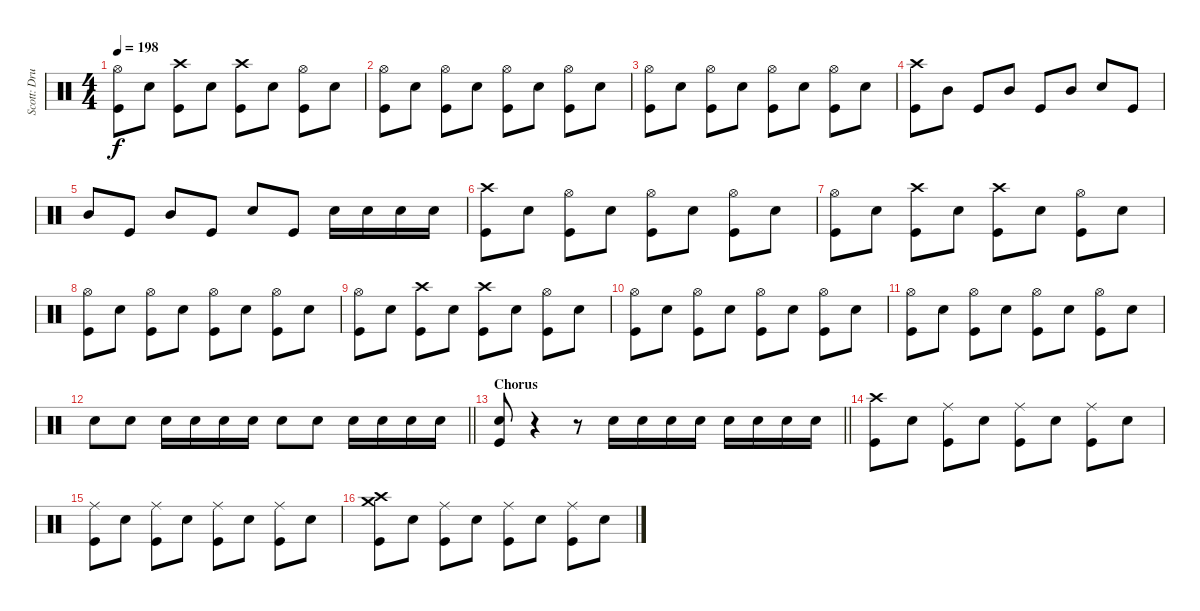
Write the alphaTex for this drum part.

\track ("Scott: Drums" "Scott: Dru") {instrument percussion}
\staff {score}
\articulation defaults
\ts (4 4)
\tempo 198
\clef neutral
\ks c
("Hi-Hat (open)" "Kick (hit)").8{dy f} "Electric Snare (hit)".8 ("Crash high (hit)" "Kick (hit)").8 "Electric Snare (hit)".8 ("Crash high (hit)" "Kick (hit)").8 "Electric Snare (hit)".8 ("Hi-Hat (open)" "Kick (hit)").8 "Electric Snare (hit)".8 |
("Hi-Hat (open)" "Kick (hit)").8 "Electric Snare (hit)".8 ("Hi-Hat (open)" "Kick (hit)").8 "Electric Snare (hit)".8 ("Hi-Hat (open)" "Kick (hit)").8 "Electric Snare (hit)".8 ("Hi-Hat (open)" "Kick (hit)").8 "Electric Snare (hit)".8 |
("Hi-Hat (open)" "Kick (hit)").8 "Electric Snare (hit)".8 ("Hi-Hat (open)" "Kick (hit)").8 "Electric Snare (hit)".8 ("Hi-Hat (open)" "Kick (hit)").8 "Electric Snare (hit)".8 ("Hi-Hat (open)" "Kick (hit)").8 "Electric Snare (hit)".8 |
("Crash high (hit)" "Kick (hit)").8 "Mid Tom (hit)".8 "Kick (hit)".8 "Mid Tom (hit)".8 "Kick (hit)".8 "Mid Tom (hit)".8 "Electric Snare (hit)".8 "Kick (hit)".8 |
"Mid Tom (hit)".8 "Kick (hit)".8 "Mid Tom (hit)".8 "Kick (hit)".8 "Electric Snare (hit)".8 "Kick (hit)".8 "Electric Snare (hit)".16 "Electric Snare (hit)".16 "Electric Snare (hit)".16 "Electric Snare (hit)".16 |
("Crash high (hit)" "Kick (hit)").8 "Electric Snare (hit)".8 ("Hi-Hat (open)" "Kick (hit)").8 "Electric Snare (hit)".8 ("Hi-Hat (open)" "Kick (hit)").8 "Electric Snare (hit)".8 ("Hi-Hat (open)" "Kick (hit)").8 "Electric Snare (hit)".8 |
("Hi-Hat (open)" "Kick (hit)").8 "Electric Snare (hit)".8 ("Crash high (hit)" "Kick (hit)").8 "Electric Snare (hit)".8 ("Crash high (hit)" "Kick (hit)").8 "Electric Snare (hit)".8 ("Hi-Hat (open)" "Kick (hit)").8 "Electric Snare (hit)".8 |
("Hi-Hat (open)" "Kick (hit)").8 "Electric Snare (hit)".8 ("Hi-Hat (open)" "Kick (hit)").8 "Electric Snare (hit)".8 ("Hi-Hat (open)" "Kick (hit)").8 "Electric Snare (hit)".8 ("Hi-Hat (open)" "Kick (hit)").8 "Electric Snare (hit)".8 |
("Hi-Hat (open)" "Kick (hit)").8 "Electric Snare (hit)".8 ("Crash high (hit)" "Kick (hit)").8 "Electric Snare (hit)".8 ("Crash high (hit)" "Kick (hit)").8 "Electric Snare (hit)".8 ("Hi-Hat (open)" "Kick (hit)").8 "Electric Snare (hit)".8 |
("Hi-Hat (open)" "Kick (hit)").8 "Electric Snare (hit)".8 ("Hi-Hat (open)" "Kick (hit)").8 "Electric Snare (hit)".8 ("Hi-Hat (open)" "Kick (hit)").8 "Electric Snare (hit)".8 ("Hi-Hat (open)" "Kick (hit)").8 "Electric Snare (hit)".8 |
("Hi-Hat (open)" "Kick (hit)").8 "Electric Snare (hit)".8 ("Hi-Hat (open)" "Kick (hit)").8 "Electric Snare (hit)".8 ("Hi-Hat (open)" "Kick (hit)").8 "Electric Snare (hit)".8 ("Hi-Hat (open)" "Kick (hit)").8 "Electric Snare (hit)".8 |
\barLineRight lightlight "Electric Snare (hit)".8 "Electric Snare (hit)".8 "Electric Snare (hit)".16 "Electric Snare (hit)".16 "Electric Snare (hit)".16 "Electric Snare (hit)".16 "Electric Snare (hit)".8 "Electric Snare (hit)".8 "Electric Snare (hit)".16 "Electric Snare (hit)".16 "Electric Snare (hit)".16 "Electric Snare (hit)".16
|
\section ("" "Chorus")
\barLineRight lightlight
("Electric Snare (hit)" "Kick (hit)").8 r.4 r.8 "Electric Snare (hit)".16 "Electric Snare (hit)".16 "Electric Snare (hit)".16 "Electric Snare (hit)".16 "Electric Snare (hit)".16 "Electric Snare (hit)".16 "Electric Snare (hit)".16 "Electric Snare (hit)".16 |
("Crash high (hit)" "Kick (hit)").8 "Electric Snare (hit)".8 ("Ride (middle)" "Kick (hit)").8 "Electric Snare (hit)".8 ("Ride (middle)" "Kick (hit)").8 "Electric Snare (hit)".8 ("Ride (middle)" "Kick (hit)").8 "Electric Snare (hit)".8 |
("Ride (middle)" "Kick (hit)").8 "Electric Snare (hit)".8 ("Ride (middle)" "Kick (hit)").8 "Electric Snare (hit)".8 ("Ride (middle)" "Kick (hit)").8 "Electric Snare (hit)".8 ("Ride (middle)" "Kick (hit)").8 "Electric Snare (hit)".8 |
("Crash high (hit)" "Crash medium (hit)" "Kick (hit)").8 "Electric Snare (hit)".8 ("Ride (middle)" "Kick (hit)").8 "Electric Snare (hit)".8 ("Ride (middle)" "Kick (hit)").8 "Electric Snare (hit)".8 ("Ride (middle)" "Kick (hit)").8 "Electric Snare (hit)".8
